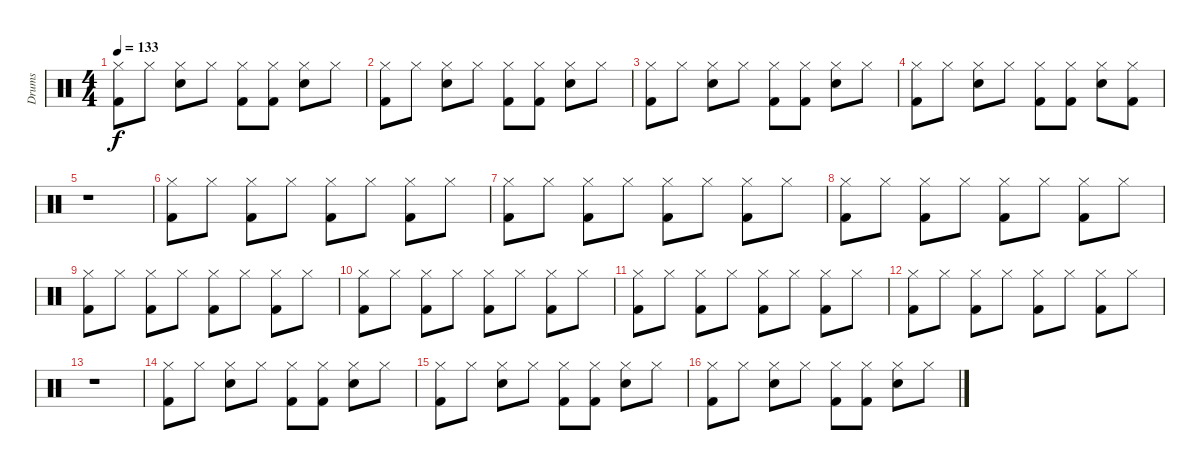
\track ("Drums" "Drums") {instrument percussion}
\staff {score}
\articulation defaults
\ts (4 4)
\tempo 133
\clef neutral
\ks c
("Kick (hit) 2" "Hi-Hat (closed)").8{dy f} "Hi-Hat (closed)".8 ("Snare (hit) 2" "Hi-Hat (closed)").8 "Hi-Hat (closed)".8 ("Kick (hit) 2" "Hi-Hat (closed)").8 ("Kick (hit) 2" "Hi-Hat (closed)").8 ("Snare (hit) 2" "Hi-Hat (closed)").8 "Hi-Hat (closed)".8 |
("Kick (hit) 2" "Hi-Hat (closed)").8 "Hi-Hat (closed)".8 ("Snare (hit) 2" "Hi-Hat (closed)").8 "Hi-Hat (closed)".8 ("Kick (hit) 2" "Hi-Hat (closed)").8 ("Kick (hit) 2" "Hi-Hat (closed)").8 ("Snare (hit) 2" "Hi-Hat (closed)").8 "Hi-Hat (closed)".8 |
("Kick (hit) 2" "Hi-Hat (closed)").8 "Hi-Hat (closed)".8 ("Snare (hit) 2" "Hi-Hat (closed)").8 "Hi-Hat (closed)".8 ("Kick (hit) 2" "Hi-Hat (closed)").8 ("Kick (hit) 2" "Hi-Hat (closed)").8 ("Snare (hit) 2" "Hi-Hat (closed)").8 "Hi-Hat (closed)".8 |
("Kick (hit) 2" "Hi-Hat (closed)").8 "Hi-Hat (closed)".8 ("Snare (hit) 2" "Hi-Hat (closed)").8 "Hi-Hat (closed)".8 ("Kick (hit) 2" "Hi-Hat (closed)").8 ("Kick (hit) 2" "Hi-Hat (closed)").8 ("Snare (hit) 2" "Hi-Hat (closed)").8 ("Kick (hit) 2" "Hi-Hat (closed)").8 |
r.1 |
("Kick (hit) 2" "Hi-Hat (closed)").8 "Hi-Hat (closed)".8 ("Kick (hit) 2" "Hi-Hat (closed)").8 "Hi-Hat (closed)".8 ("Kick (hit) 2" "Hi-Hat (closed)").8 "Hi-Hat (closed)".8 ("Kick (hit) 2" "Hi-Hat (closed)").8 "Hi-Hat (closed)".8 |
("Kick (hit) 2" "Hi-Hat (closed)").8 "Hi-Hat (closed)".8 ("Kick (hit) 2" "Hi-Hat (closed)").8 "Hi-Hat (closed)".8 ("Kick (hit) 2" "Hi-Hat (closed)").8 "Hi-Hat (closed)".8 ("Kick (hit) 2" "Hi-Hat (closed)").8 "Hi-Hat (closed)".8 |
("Kick (hit) 2" "Hi-Hat (closed)").8 "Hi-Hat (closed)".8 ("Kick (hit) 2" "Hi-Hat (closed)").8 "Hi-Hat (closed)".8 ("Kick (hit) 2" "Hi-Hat (closed)").8 "Hi-Hat (closed)".8 ("Kick (hit) 2" "Hi-Hat (closed)").8 "Hi-Hat (closed)".8 |
("Kick (hit) 2" "Hi-Hat (closed)").8 "Hi-Hat (closed)".8 ("Kick (hit) 2" "Hi-Hat (closed)").8 "Hi-Hat (closed)".8 ("Kick (hit) 2" "Hi-Hat (closed)").8 "Hi-Hat (closed)".8 ("Kick (hit) 2" "Hi-Hat (closed)").8 "Hi-Hat (closed)".8 |
("Kick (hit) 2" "Hi-Hat (closed)").8 "Hi-Hat (closed)".8 ("Kick (hit) 2" "Hi-Hat (closed)").8 "Hi-Hat (closed)".8 ("Kick (hit) 2" "Hi-Hat (closed)").8 "Hi-Hat (closed)".8 ("Kick (hit) 2" "Hi-Hat (closed)").8 "Hi-Hat (closed)".8 |
("Kick (hit) 2" "Hi-Hat (closed)").8 "Hi-Hat (closed)".8 ("Kick (hit) 2" "Hi-Hat (closed)").8 "Hi-Hat (closed)".8 ("Kick (hit) 2" "Hi-Hat (closed)").8 "Hi-Hat (closed)".8 ("Kick (hit) 2" "Hi-Hat (closed)").8 "Hi-Hat (closed)".8 |
("Kick (hit) 2" "Hi-Hat (closed)").8 "Hi-Hat (closed)".8 ("Kick (hit) 2" "Hi-Hat (closed)").8 "Hi-Hat (closed)".8 ("Kick (hit) 2" "Hi-Hat (closed)").8 "Hi-Hat (closed)".8 ("Kick (hit) 2" "Hi-Hat (closed)").8 "Hi-Hat (closed)".8 |
r.1 |
("Kick (hit) 2" "Hi-Hat (closed)").8 "Hi-Hat (closed)".8 ("Snare (hit) 2" "Hi-Hat (closed)").8 "Hi-Hat (closed)".8 ("Kick (hit) 2" "Hi-Hat (closed)").8 ("Kick (hit) 2" "Hi-Hat (closed)").8 ("Snare (hit) 2" "Hi-Hat (closed)").8 "Hi-Hat (closed)".8 |
("Kick (hit) 2" "Hi-Hat (closed)").8 "Hi-Hat (closed)".8 ("Snare (hit) 2" "Hi-Hat (closed)").8 "Hi-Hat (closed)".8 ("Kick (hit) 2" "Hi-Hat (closed)").8 ("Kick (hit) 2" "Hi-Hat (closed)").8 ("Snare (hit) 2" "Hi-Hat (closed)").8 "Hi-Hat (closed)".8 |
("Kick (hit) 2" "Hi-Hat (closed)").8 "Hi-Hat (closed)".8 ("Snare (hit) 2" "Hi-Hat (closed)").8 "Hi-Hat (closed)".8 ("Kick (hit) 2" "Hi-Hat (closed)").8 ("Kick (hit) 2" "Hi-Hat (closed)").8 ("Snare (hit) 2" "Hi-Hat (closed)").8 "Hi-Hat (closed)".8
